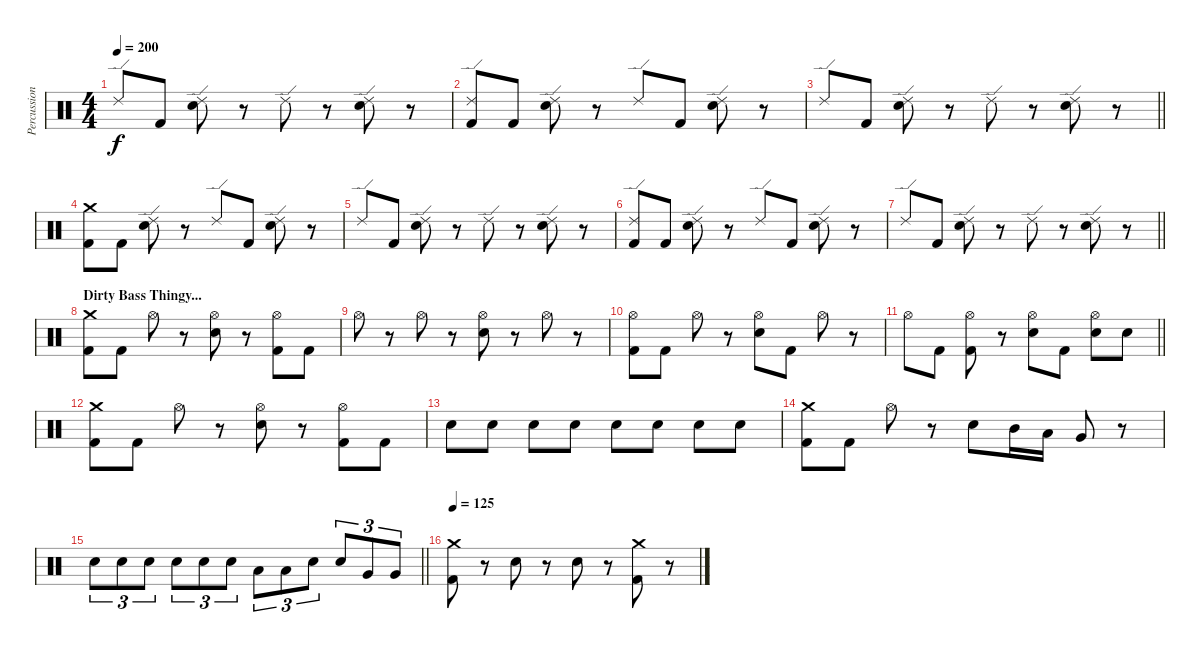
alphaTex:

\track ("Percussion" "Percussion") {instrument percussion}
\staff {score}
\articulation defaults
\ts (4 4)
\tempo 200
\clef neutral
\ks c "Ride (edge) 2".8{dy f} "Kick (hit) 2".8
("Ride (edge) 2" "Electric Snare (hit)").8 r.8 "Ride (edge) 2".8 r.8 ("Ride (edge) 2" "Electric Snare (hit)").8 r.8 |
("Ride (edge) 2" "Kick (hit) 2").8 "Kick (hit) 2".8 ("Ride (edge) 2" "Electric Snare (hit)").8 r.8 "Ride (edge) 2".8 "Kick (hit) 2".8 ("Ride (edge) 2" "Electric Snare (hit)").8 r.8 |
\barLineRight lightlight "Ride (edge) 2".8 "Kick (hit) 2".8
("Ride (edge) 2" "Electric Snare (hit)").8 r.8 "Ride (edge) 2".8 r.8 ("Ride (edge) 2" "Electric Snare (hit)").8 r.8 |
("Crash medium (hit)" "Kick (hit) 2").8 "Kick (hit) 2".8 ("Ride (edge) 2" "Electric Snare (hit)").8 r.8 "Ride (edge) 2".8 "Kick (hit) 2".8 ("Ride (edge) 2" "Electric Snare (hit)").8 r.8 |
"Ride (edge) 2".8 "Kick (hit) 2".8 ("Ride (edge) 2" "Electric Snare (hit)").8 r.8 "Ride (edge) 2".8 r.8 ("Ride (edge) 2" "Electric Snare (hit)").8 r.8 |
("Ride (edge) 2" "Kick (hit) 2").8 "Kick (hit) 2".8 ("Ride (edge) 2" "Electric Snare (hit)").8 r.8 "Ride (edge) 2".8 "Kick (hit) 2".8 ("Ride (edge) 2" "Electric Snare (hit)").8 r.8 |
\barLineRight lightlight "Ride (edge) 2".8 "Kick (hit) 2".8
("Ride (edge) 2" "Electric Snare (hit)").8 r.8 "Ride (edge) 2".8 r.8 ("Ride (edge) 2" "Electric Snare (hit)").8 r.8 |
\section ("" "Dirty Bass Thingy...")
("Crash medium (hit)" "Kick (hit) 2").8 "Kick (hit) 2".8 "Hi-Hat (open)".8 r.8 ("Hi-Hat (open)" "Electric Snare (hit)").8 r.8 ("Hi-Hat (open)" "Kick (hit) 2").8 "Kick (hit) 2".8 |
"Hi-Hat (open)".8 r.8 "Hi-Hat (open)".8 r.8 ("Hi-Hat (open)" "Electric Snare (hit)").8 r.8 "Hi-Hat (open)".8 r.8 |
("Hi-Hat (open)" "Kick (hit) 2").8 "Kick (hit) 2".8 "Hi-Hat (open)".8 r.8 ("Hi-Hat (open)" "Electric Snare (hit)").8 "Kick (hit) 2".8 "Hi-Hat (open)".8 r.8 |
\barLineRight lightlight "Hi-Hat (open)".8 "Kick (hit) 2".8
("Hi-Hat (open)" "Kick (hit) 2").8 r.8 ("Hi-Hat (open)" "Electric Snare (hit)").8 "Kick (hit) 2".8 ("Hi-Hat (open)" "Electric Snare (hit)").8 "Electric Snare (hit)".8 |
("Crash medium (hit)" "Kick (hit) 2").8 "Kick (hit) 2".8 "Hi-Hat (open)".8 r.8 ("Hi-Hat (open)" "Electric Snare (hit)").8 r.8 ("Hi-Hat (open)" "Kick (hit) 2").8 "Kick (hit) 2".8 |
"Electric Snare (hit)".8 "Electric Snare (hit)".8 "Electric Snare (hit)".8 "Electric Snare (hit)".8 "Electric Snare (hit)".8 "Electric Snare (hit)".8 "Electric Snare (hit)".8 "Electric Snare (hit)".8 |
("Crash medium (hit)" "Kick (hit) 2").8 "Kick (hit) 2".8 "Hi-Hat (open)".8 r.8 "Electric Snare (hit)".8 "Mid Tom (hit)".16 "Low Tom (hit)".16 "Very Low Tom (hit)".8 r.8 |
\barLineRight lightlight "Electric Snare (hit)".8{tu (3 2)} "Electric Snare (hit)".8{tu (3 2)} "Electric Snare (hit)".8{tu (3 2)} "Electric Snare (hit)".8{tu (3 2)} "Electric Snare (hit)".8{tu (3 2)} "Electric Snare (hit)".8{tu (3 2)} "Low Tom (hit)".8{tu (3 2)} "Low Tom (hit)".8{tu (3 2)} "Electric Snare (hit)".8{tu (3 2)} "Electric Snare (hit)".8{tu (3 2)} "Very Low Tom (hit)".8{tu (3 2)} "Very Low Tom (hit)".8{tu (3 2)}
|
\tempo 125
("Crash medium (hit)" "Kick (hit) 2").8 r.8 "Electric Snare (hit)".8 r.8 "Electric Snare (hit)".8 r.8 ("Crash medium (hit)" "Kick (hit) 2").8 r.8
